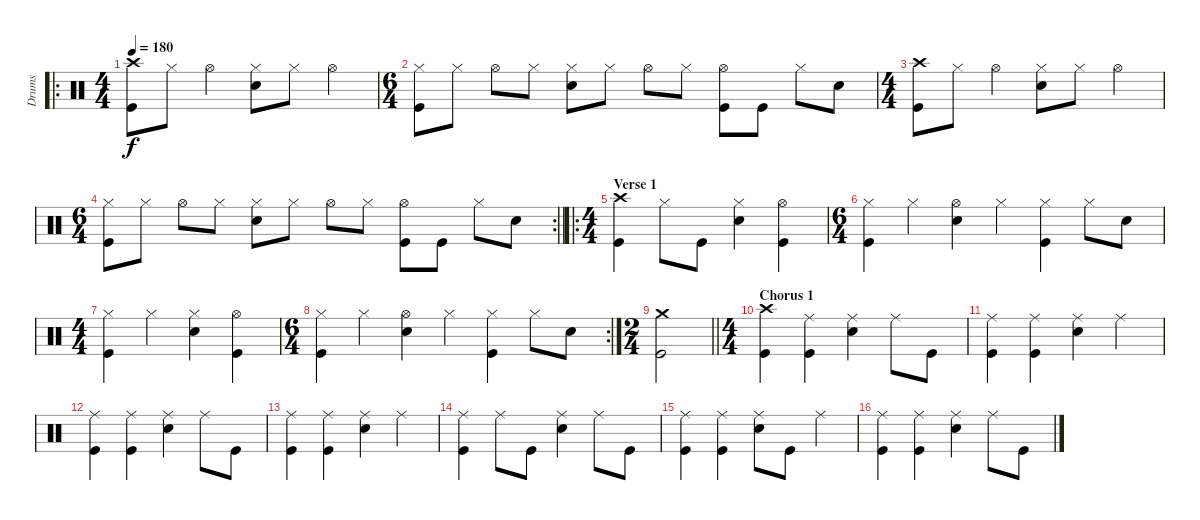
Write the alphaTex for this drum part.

\track ("Drums" "Drums") {instrument percussion}
\staff {score}
\articulation defaults
\ro
\ts (4 4)
\tempo 180
\clef neutral
\ks c
("Crash high (hit)" "Kick (hit)").8{dy f} "Hi-Hat (closed)".8 "Hi-Hat (open)".4 ("Hi-Hat (closed)" "Snare (hit) 2").8 "Hi-Hat (closed)".8 "Hi-Hat (open)".4 |
\ts (6 4)
("Hi-Hat (closed)" "Kick (hit)").8 "Hi-Hat (closed)".8 "Hi-Hat (open)".8 "Hi-Hat (closed)".8 ("Hi-Hat (closed)" "Snare (hit) 2").8 "Hi-Hat (closed)".8 "Hi-Hat (open)".8 "Hi-Hat (closed)".8 ("Hi-Hat (open)" "Kick (hit)").8 "Kick (hit)".8 "Hi-Hat (closed)".8 "Snare (hit) 2".8 |
\ts (4 4)
("Crash high (hit)" "Kick (hit)").8 "Hi-Hat (closed)".8 "Hi-Hat (open)".4 ("Hi-Hat (closed)" "Snare (hit) 2").8 "Hi-Hat (closed)".8 "Hi-Hat (open)".4 |
\rc 2
\ts (6 4)
\barLineRight lightlight
("Hi-Hat (closed)" "Kick (hit)").8 "Hi-Hat (closed)".8 "Hi-Hat (open)".8 "Hi-Hat (closed)".8 ("Hi-Hat (closed)" "Snare (hit) 2").8 "Hi-Hat (closed)".8 "Hi-Hat (open)".8 "Hi-Hat (closed)".8 ("Hi-Hat (open)" "Kick (hit)").8 "Kick (hit)".8 "Hi-Hat (closed)".8 "Snare (hit) 2".8 |
\ro
\ts (4 4)
\section ("" "Verse 1")
("Crash high (hit)" "Kick (hit)").4 "Hi-Hat (closed)".8 "Kick (hit)".8 ("Hi-Hat (closed)" "Snare (hit) 2").4 ("Hi-Hat (open)" "Kick (hit)").4 |
\ts (6 4)
("Hi-Hat (closed)" "Kick (hit)").4 "Hi-Hat (closed)".4 ("Hi-Hat (open)" "Snare (hit) 2").4 "Hi-Hat (closed)".4 ("Hi-Hat (closed)" "Kick (hit)").4 "Hi-Hat (closed)".8 "Snare (hit) 2".8 |
\ts (4 4)
("Hi-Hat (closed)" "Kick (hit)").4 "Hi-Hat (closed)".4 ("Hi-Hat (closed)" "Snare (hit) 2").4 ("Hi-Hat (open)" "Kick (hit)").4 |
\rc 2
\ts (6 4)
("Hi-Hat (closed)" "Kick (hit)").4 "Hi-Hat (closed)".4 ("Hi-Hat (open)" "Snare (hit) 2").4 "Hi-Hat (closed)".4 ("Hi-Hat (closed)" "Kick (hit)").4 "Hi-Hat (closed)".8 "Snare (hit) 2".8 |
\ts (2 4)
\barLineRight lightlight
("Crash medium (hit)" "Kick (hit)").2 |
\ts (4 4)
\section ("" "Chorus 1")
("Crash high (hit)" "Kick (hit)").4 ("Ride (middle)" "Kick (hit)").4 ("Ride (middle)" "Snare (hit) 2").4 "Ride (middle)".8 "Kick (hit)".8 |
("Ride (middle)" "Kick (hit)").4 ("Ride (middle)" "Kick (hit)").4 ("Ride (middle)" "Snare (hit) 2").4 "Ride (middle)".4 |
("Ride (middle)" "Kick (hit)").4 ("Ride (middle)" "Kick (hit)").4 ("Ride (middle)" "Snare (hit) 2").4 "Ride (middle)".8 "Kick (hit)".8 |
("Ride (middle)" "Kick (hit)").4 ("Ride (middle)" "Kick (hit)").4 ("Ride (middle)" "Snare (hit) 2").4 "Ride (middle)".4 |
("Ride (middle)" "Kick (hit)").4 "Ride (middle)".8 "Kick (hit)".8 ("Ride (middle)" "Snare (hit) 2").4 "Ride (middle)".8 "Kick (hit)".8 |
("Ride (middle)" "Kick (hit)").4 ("Ride (middle)" "Kick (hit)").4 ("Ride (middle)" "Snare (hit) 2").8 "Kick (hit)".8 "Ride (middle)".4 |
("Ride (middle)" "Kick (hit)").4 ("Ride (middle)" "Kick (hit)").4 ("Ride (middle)" "Snare (hit) 2").4 "Ride (middle)".8 "Kick (hit)".8
